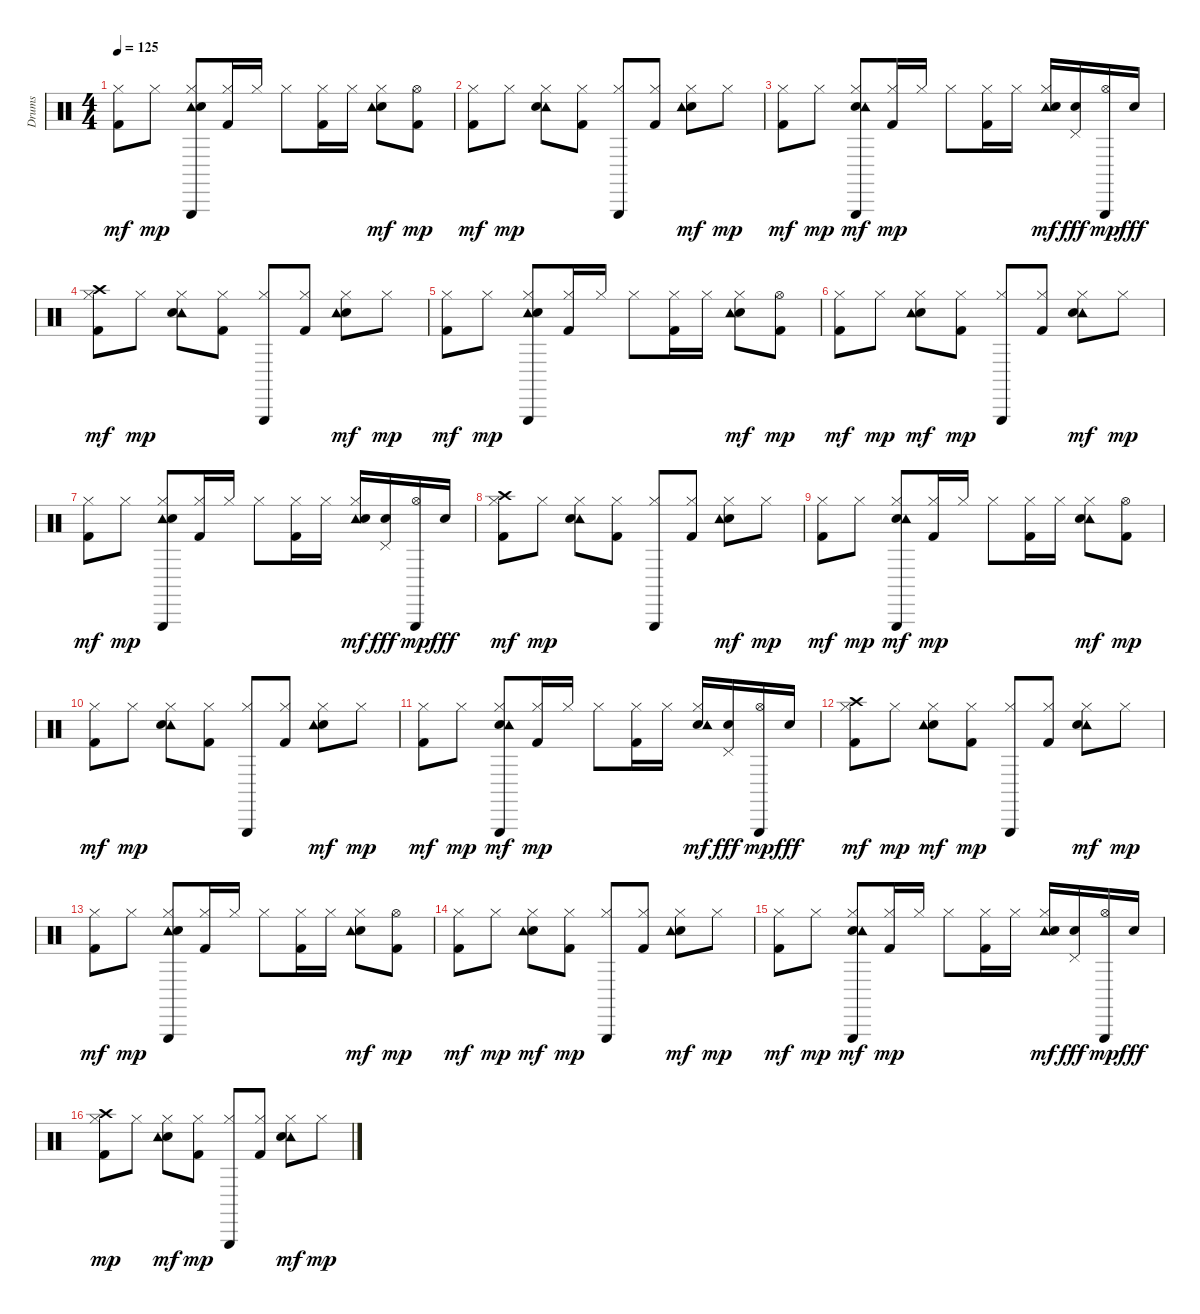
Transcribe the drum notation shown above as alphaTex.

\track ("Drums" "Drums") {instrument percussion}
\staff {score}
\articulation defaults
\ts (4 4)
\tempo 125
\clef neutral
\ks c
("Kick (hit) 2" "Hi-Hat (closed)").8{dy mf} "Hi-Hat (closed)".8{dy mp} ("Tambourine (hit)" "Electric Snare (hit)" "Hi-Hat (closed)" "Triangle (hit)").8 ("Kick (hit) 2" "Hi-Hat (closed)").16 "Hi-Hat (closed)".16 "Hi-Hat (closed)".8 ("Kick (hit) 2" "Hi-Hat (closed)").16 "Hi-Hat (closed)".16 ("Hi-Hat (closed)" "Electric Snare (hit)" "Tambourine (hit)").8{dy mf} ("Hi-Hat (open)" "Kick (hit) 2").8{dy mp} |
("Kick (hit) 2" "Hi-Hat (closed)").8{dy mf} "Hi-Hat (closed)".8{dy mp} ("Tambourine (hit)" "Electric Snare (hit)" "Hi-Hat (closed)").8 ("Kick (hit) 2" "Hi-Hat (closed)").8 ("Triangle (hit)" "Hi-Hat (closed)").8 ("Kick (hit) 2" "Hi-Hat (closed)").8 ("Hi-Hat (closed)" "Electric Snare (hit)" "Tambourine (hit)").8{dy mf} "Hi-Hat (closed)".8{dy mp} |
("Kick (hit) 2" "Hi-Hat (closed)").8{dy mf} "Hi-Hat (closed)".8{dy mp} ("Triangle (hit)" "Hi-Hat (closed)" "Electric Snare (hit)" "Tambourine (hit)").8{dy mf} ("Kick (hit) 2" "Hi-Hat (closed)").16{dy mp} "Hi-Hat (closed)".16 "Hi-Hat (closed)".8 ("Hi-Hat (closed)" "Kick (hit) 2").16 "Hi-Hat (closed)".16 ("Tambourine (hit)" "Electric Snare (hit)" "Hi-Hat (closed)").16{dy mf} ("Pedal Hi-Hat (hit)" "Electric Snare (hit)").16{dy fff} ("Triangle (hit)" "Hi-Hat (open)").16{dy mp} "Electric Snare (hit)".16{dy fff} |
("Hi-Hat (closed)" "Kick (hit) 2" "Crash high (hit)").8{dy mf} "Hi-Hat (closed)".8{dy mp} ("Tambourine (hit)" "Electric Snare (hit)" "Hi-Hat (closed)").8 ("Hi-Hat (closed)" "Kick (hit) 2").8 ("Hi-Hat (closed)" "Triangle (hit)").8 ("Hi-Hat (closed)" "Kick (hit) 2").8 ("Hi-Hat (closed)" "Electric Snare (hit)" "Tambourine (hit)").8{dy mf} "Hi-Hat (closed)".8{dy mp} |
("Hi-Hat (closed)" "Kick (hit) 2").8{dy mf} "Hi-Hat (closed)".8{dy mp} ("Tambourine (hit)" "Electric Snare (hit)" "Hi-Hat (closed)" "Triangle (hit)").8 ("Hi-Hat (closed)" "Kick (hit) 2").16 "Hi-Hat (closed)".16 "Hi-Hat (closed)".8 ("Hi-Hat (closed)" "Kick (hit) 2").16 "Hi-Hat (closed)".16 ("Hi-Hat (closed)" "Electric Snare (hit)" "Tambourine (hit)").8{dy mf} ("Kick (hit) 2" "Hi-Hat (open)").8{dy mp} |
("Hi-Hat (closed)" "Kick (hit) 2").8{dy mf} "Hi-Hat (closed)".8{dy mp} ("Hi-Hat (closed)" "Electric Snare (hit)" "Tambourine (hit)").8{dy mf} ("Hi-Hat (closed)" "Kick (hit) 2").8{dy mp} ("Hi-Hat (closed)" "Triangle (hit)").8 ("Kick (hit) 2" "Hi-Hat (closed)").8 ("Tambourine (hit)" "Electric Snare (hit)" "Hi-Hat (closed)").8{dy mf} "Hi-Hat (closed)".8{dy mp} |
("Kick (hit) 2" "Hi-Hat (closed)").8{dy mf} "Hi-Hat (closed)".8{dy mp} ("Tambourine (hit)" "Electric Snare (hit)" "Hi-Hat (closed)" "Triangle (hit)").8 ("Kick (hit) 2" "Hi-Hat (closed)").16 "Hi-Hat (closed)".16 "Hi-Hat (closed)".8 ("Kick (hit) 2" "Hi-Hat (closed)").16 "Hi-Hat (closed)".16 ("Tambourine (hit)" "Electric Snare (hit)" "Hi-Hat (closed)").16{dy mf} ("Electric Snare (hit)" "Pedal Hi-Hat (hit)").16{dy fff} ("Triangle (hit)" "Hi-Hat (open)").16{dy mp} "Electric Snare (hit)".16{dy fff} |
("Crash high (hit)" "Kick (hit) 2" "Hi-Hat (closed)").8{dy mf} "Hi-Hat (closed)".8{dy mp} ("Tambourine (hit)" "Electric Snare (hit)" "Hi-Hat (closed)").8 ("Kick (hit) 2" "Hi-Hat (closed)").8 ("Triangle (hit)" "Hi-Hat (closed)").8 ("Kick (hit) 2" "Hi-Hat (closed)").8 ("Hi-Hat (closed)" "Electric Snare (hit)" "Tambourine (hit)").8{dy mf} "Hi-Hat (closed)".8{dy mp} |
("Kick (hit) 2" "Hi-Hat (closed)").8{dy mf} "Hi-Hat (closed)".8{dy mp} ("Triangle (hit)" "Hi-Hat (closed)" "Electric Snare (hit)" "Tambourine (hit)").8{dy mf} ("Kick (hit) 2" "Hi-Hat (closed)").16{dy mp} "Hi-Hat (closed)".16 "Hi-Hat (closed)".8 ("Hi-Hat (closed)" "Kick (hit) 2").16 "Hi-Hat (closed)".16 ("Tambourine (hit)" "Electric Snare (hit)" "Hi-Hat (closed)").8{dy mf} ("Hi-Hat (open)" "Kick (hit) 2").8{dy mp} |
("Hi-Hat (closed)" "Kick (hit) 2").8{dy mf} "Hi-Hat (closed)".8{dy mp} ("Tambourine (hit)" "Electric Snare (hit)" "Hi-Hat (closed)").8 ("Kick (hit) 2" "Hi-Hat (closed)").8 ("Hi-Hat (closed)" "Triangle (hit)").8 ("Hi-Hat (closed)" "Kick (hit) 2").8 ("Hi-Hat (closed)" "Electric Snare (hit)" "Tambourine (hit)").8{dy mf} "Hi-Hat (closed)".8{dy mp} |
("Hi-Hat (closed)" "Kick (hit) 2").8{dy mf} "Hi-Hat (closed)".8{dy mp} ("Triangle (hit)" "Hi-Hat (closed)" "Electric Snare (hit)" "Tambourine (hit)").8{dy mf} ("Hi-Hat (closed)" "Kick (hit) 2").16{dy mp} "Hi-Hat (closed)".16 "Hi-Hat (closed)".8 ("Hi-Hat (closed)" "Kick (hit) 2").16 "Hi-Hat (closed)".16 ("Hi-Hat (closed)" "Electric Snare (hit)" "Tambourine (hit)").16{dy mf} ("Pedal Hi-Hat (hit)" "Electric Snare (hit)").16{dy fff} ("Hi-Hat (open)" "Triangle (hit)").16{dy mp} "Electric Snare (hit)".16{dy fff} |
("Hi-Hat (closed)" "Kick (hit) 2" "Crash high (hit)").8{dy mf} "Hi-Hat (closed)".8{dy mp} ("Hi-Hat (closed)" "Electric Snare (hit)" "Tambourine (hit)").8{dy mf} ("Hi-Hat (closed)" "Kick (hit) 2").8{dy mp} ("Hi-Hat (closed)" "Triangle (hit)").8 ("Kick (hit) 2" "Hi-Hat (closed)").8 ("Tambourine (hit)" "Electric Snare (hit)" "Hi-Hat (closed)").8{dy mf} "Hi-Hat (closed)".8{dy mp} |
("Kick (hit) 2" "Hi-Hat (closed)").8{dy mf} "Hi-Hat (closed)".8{dy mp} ("Tambourine (hit)" "Electric Snare (hit)" "Hi-Hat (closed)" "Triangle (hit)").8 ("Hi-Hat (closed)" "Kick (hit) 2").16 "Hi-Hat (closed)".16 "Hi-Hat (closed)".8 ("Kick (hit) 2" "Hi-Hat (closed)").16 "Hi-Hat (closed)".16 ("Hi-Hat (closed)" "Electric Snare (hit)" "Tambourine (hit)").8{dy mf} ("Hi-Hat (open)" "Kick (hit) 2").8{dy mp} |
("Kick (hit) 2" "Hi-Hat (closed)").8{dy mf} "Hi-Hat (closed)".8{dy mp} ("Hi-Hat (closed)" "Electric Snare (hit)" "Tambourine (hit)").8{dy mf} ("Kick (hit) 2" "Hi-Hat (closed)").8{dy mp} ("Triangle (hit)" "Hi-Hat (closed)").8 ("Kick (hit) 2" "Hi-Hat (closed)").8 ("Hi-Hat (closed)" "Electric Snare (hit)" "Tambourine (hit)").8{dy mf} "Hi-Hat (closed)".8{dy mp} |
("Kick (hit) 2" "Hi-Hat (closed)").8{dy mf} "Hi-Hat (closed)".8{dy mp} ("Triangle (hit)" "Hi-Hat (closed)" "Electric Snare (hit)" "Tambourine (hit)").8{dy mf} ("Kick (hit) 2" "Hi-Hat (closed)").16{dy mp} "Hi-Hat (closed)".16 "Hi-Hat (closed)".8 ("Hi-Hat (closed)" "Kick (hit) 2").16 "Hi-Hat (closed)".16 ("Tambourine (hit)" "Electric Snare (hit)" "Hi-Hat (closed)").16{dy mf} ("Pedal Hi-Hat (hit)" "Electric Snare (hit)").16{dy fff} ("Triangle (hit)" "Hi-Hat (open)").16{dy mp} "Electric Snare (hit)".16{dy fff} |
("Kick (hit) 2" "Hi-Hat (closed)" "Crash high (hit)").8{dy mp} "Hi-Hat (closed)".8 ("Hi-Hat (closed)" "Electric Snare (hit)" "Tambourine (hit)").8{dy mf} ("Hi-Hat (closed)" "Kick (hit) 2").8{dy mp} ("Hi-Hat (closed)" "Triangle (hit)").8 ("Kick (hit) 2" "Hi-Hat (closed)").8 ("Tambourine (hit)" "Electric Snare (hit)" "Hi-Hat (closed)").8{dy mf} "Hi-Hat (closed)".8{dy mp}
